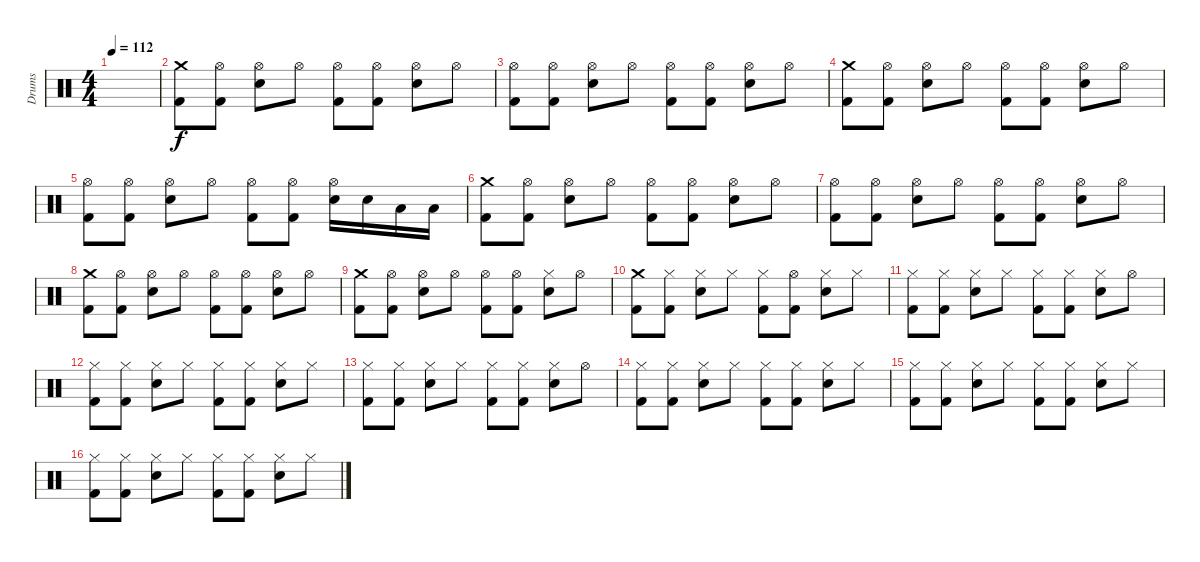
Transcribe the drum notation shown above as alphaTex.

\track ("Drums" "Drums") {instrument percussion}
\staff {score}
\articulation defaults
\ts (4 4)
\tempo 112
\clef neutral
\ks c
|
("Kick (hit) 2" "Crash medium (hit)").8 ("Kick (hit) 2" "Hi-Hat (open)").8 ("Electric Snare (hit)" "Hi-Hat (open)").8 "Hi-Hat (open)".8 ("Kick (hit) 2" "Hi-Hat (open)").8 ("Kick (hit) 2" "Hi-Hat (open)").8 ("Electric Snare (hit)" "Hi-Hat (open)").8 "Hi-Hat (open)".8 |
("Kick (hit) 2" "Hi-Hat (open)").8 ("Kick (hit) 2" "Hi-Hat (open)").8 ("Electric Snare (hit)" "Hi-Hat (open)").8 "Hi-Hat (open)".8 ("Kick (hit) 2" "Hi-Hat (open)").8 ("Kick (hit) 2" "Hi-Hat (open)").8 ("Electric Snare (hit)" "Hi-Hat (open)").8 "Hi-Hat (open)".8 |
("Kick (hit) 2" "Crash medium (hit)").8 ("Kick (hit) 2" "Hi-Hat (open)").8 ("Electric Snare (hit)" "Hi-Hat (open)").8 "Hi-Hat (open)".8 ("Kick (hit) 2" "Hi-Hat (open)").8 ("Kick (hit) 2" "Hi-Hat (open)").8 ("Electric Snare (hit)" "Hi-Hat (open)").8 "Hi-Hat (open)".8 |
("Kick (hit) 2" "Hi-Hat (open)").8 ("Kick (hit) 2" "Hi-Hat (open)").8 ("Electric Snare (hit)" "Hi-Hat (open)").8 "Hi-Hat (open)".8 ("Kick (hit) 2" "Hi-Hat (open)").8 ("Kick (hit) 2" "Hi-Hat (open)").8 ("Electric Snare (hit)" "Hi-Hat (open)").16 "Electric Snare (hit)".16 "Low Tom (hit)".16 "Low Tom (hit)".16 |
("Kick (hit) 2" "Crash medium (hit)").8 ("Kick (hit) 2" "Hi-Hat (open)").8 ("Electric Snare (hit)" "Hi-Hat (open)").8 "Hi-Hat (open)".8 ("Kick (hit) 2" "Hi-Hat (open)").8 ("Kick (hit) 2" "Hi-Hat (open)").8 ("Electric Snare (hit)" "Hi-Hat (open)").8 "Hi-Hat (open)".8 |
("Kick (hit) 2" "Hi-Hat (open)").8 ("Kick (hit) 2" "Hi-Hat (open)").8 ("Electric Snare (hit)" "Hi-Hat (open)").8 "Hi-Hat (open)".8 ("Kick (hit) 2" "Hi-Hat (open)").8 ("Kick (hit) 2" "Hi-Hat (open)").8 ("Electric Snare (hit)" "Hi-Hat (open)").8 "Hi-Hat (open)".8 |
("Kick (hit) 2" "Crash medium (hit)").8 ("Kick (hit) 2" "Hi-Hat (open)").8 ("Electric Snare (hit)" "Hi-Hat (open)").8 "Hi-Hat (open)".8 ("Kick (hit) 2" "Hi-Hat (open)").8 ("Kick (hit) 2" "Hi-Hat (open)").8 ("Electric Snare (hit)" "Hi-Hat (open)").8 "Hi-Hat (open)".8 |
("Kick (hit) 2" "Crash medium (hit)").8 ("Kick (hit) 2" "Hi-Hat (open)").8 ("Electric Snare (hit)" "Hi-Hat (open)").8 "Hi-Hat (open)".8 ("Kick (hit) 2" "Hi-Hat (open)").8 ("Kick (hit) 2" "Hi-Hat (open)").8 ("Electric Snare (hit)" "Hi-Hat (closed)").8 "Hi-Hat (open)".8 |
("Kick (hit) 2" "Crash medium (hit)").8 ("Kick (hit) 2" "Hi-Hat (closed)").8 ("Electric Snare (hit)" "Hi-Hat (closed)").8 "Hi-Hat (closed)".8 ("Kick (hit) 2" "Hi-Hat (closed)").8 ("Kick (hit) 2" "Hi-Hat (open)").8 ("Electric Snare (hit)" "Hi-Hat (closed)").8 "Hi-Hat (closed)".8 |
("Kick (hit) 2" "Hi-Hat (closed)").8 ("Kick (hit) 2" "Hi-Hat (closed)").8 ("Electric Snare (hit)" "Hi-Hat (closed)").8 "Hi-Hat (closed)".8 ("Kick (hit) 2" "Hi-Hat (closed)").8 ("Kick (hit) 2" "Hi-Hat (closed)").8 ("Electric Snare (hit)" "Hi-Hat (closed)").8 "Hi-Hat (open)".8 |
("Hi-Hat (closed)" "Kick (hit) 2").8 ("Kick (hit) 2" "Hi-Hat (closed)").8 ("Electric Snare (hit)" "Hi-Hat (closed)").8 "Hi-Hat (closed)".8 ("Kick (hit) 2" "Hi-Hat (closed)").8 ("Kick (hit) 2" "Hi-Hat (closed)").8 ("Electric Snare (hit)" "Hi-Hat (closed)").8 "Hi-Hat (closed)".8 |
("Kick (hit) 2" "Hi-Hat (closed)").8 ("Kick (hit) 2" "Hi-Hat (closed)").8 ("Electric Snare (hit)" "Hi-Hat (closed)").8 "Hi-Hat (closed)".8 ("Kick (hit) 2" "Hi-Hat (closed)").8 ("Kick (hit) 2" "Hi-Hat (closed)").8 ("Electric Snare (hit)" "Hi-Hat (closed)").8 "Hi-Hat (open)".8 |
("Kick (hit) 2" "Hi-Hat (closed)").8 ("Kick (hit) 2" "Hi-Hat (closed)").8 ("Electric Snare (hit)" "Hi-Hat (closed)").8 "Hi-Hat (closed)".8 ("Kick (hit) 2" "Hi-Hat (closed)").8 ("Kick (hit) 2" "Hi-Hat (closed)").8 ("Electric Snare (hit)" "Hi-Hat (closed)").8 "Hi-Hat (closed)".8 |
("Kick (hit) 2" "Hi-Hat (closed)").8 ("Kick (hit) 2" "Hi-Hat (closed)").8 ("Electric Snare (hit)" "Hi-Hat (closed)").8 "Hi-Hat (closed)".8 ("Kick (hit) 2" "Hi-Hat (closed)").8 ("Kick (hit) 2" "Hi-Hat (closed)").8 ("Electric Snare (hit)" "Hi-Hat (closed)").8 "Hi-Hat (closed)".8 |
("Kick (hit) 2" "Hi-Hat (closed)").8 ("Kick (hit) 2" "Hi-Hat (closed)").8 ("Electric Snare (hit)" "Hi-Hat (closed)").8 "Hi-Hat (closed)".8 ("Kick (hit) 2" "Hi-Hat (closed)").8 ("Kick (hit) 2" "Hi-Hat (closed)").8 ("Electric Snare (hit)" "Hi-Hat (closed)").8 "Hi-Hat (closed)".8
